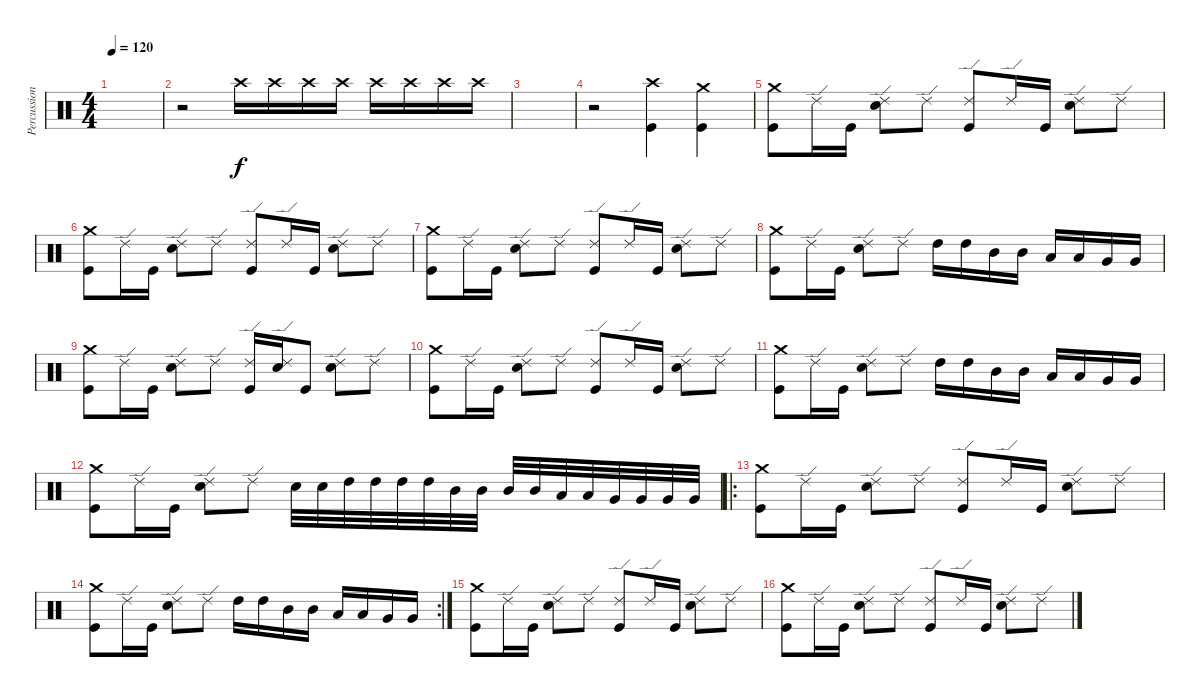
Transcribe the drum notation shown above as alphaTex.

\track ("Percussion" "Percussion") {instrument percussion}
\staff {score}
\articulation defaults
\ts (4 4)
\tempo 120
\clef neutral
\ks c
|
r.2 "Crash high (hit)".16{volume 0} "Crash high (hit)".16{volume 3} "Crash high (hit)".16 "Crash high (hit)".16 "Crash high (hit)".16{volume 8} "Crash high (hit)".16 "Crash high (hit)".16 "Crash high (hit)".16 |
|
r.2 ("Crash high (hit)" "Kick (hit)").4 ("Crash medium (hit)" "Kick (hit)").4 |
("Crash medium (hit)" "Kick (hit)").8 "Ride (edge) 2".16 "Kick (hit)".16 ("Ride (edge) 2" "Electric Snare (hit)").8 "Ride (edge) 2".8 ("Ride (edge) 2" "Kick (hit)").8 "Ride (edge) 2".16 "Kick (hit)".16 ("Ride (edge) 2" "Electric Snare (hit)").8 "Ride (edge) 2".8 |
("Crash medium (hit)" "Kick (hit)").8 "Ride (edge) 2".16 "Kick (hit)".16 ("Ride (edge) 2" "Electric Snare (hit)").8 "Ride (edge) 2".8 ("Ride (edge) 2" "Kick (hit)").8 "Ride (edge) 2".16 "Kick (hit)".16 ("Ride (edge) 2" "Electric Snare (hit)").8 "Ride (edge) 2".8 |
("Crash medium (hit)" "Kick (hit)").8 "Ride (edge) 2".16 "Kick (hit)".16 ("Ride (edge) 2" "Electric Snare (hit)").8 "Ride (edge) 2".8 ("Ride (edge) 2" "Kick (hit)").8 "Ride (edge) 2".16 "Kick (hit)".16 ("Ride (edge) 2" "Electric Snare (hit)").8 "Ride (edge) 2".8 |
("Crash medium (hit)" "Kick (hit)").8 "Ride (edge) 2".16 "Kick (hit)".16 ("Ride (edge) 2" "Electric Snare (hit)").8 "Ride (edge) 2".8 "High Tom (hit)".16 "High Tom (hit)".16 "Mid Tom (hit)".16 "Mid Tom (hit)".16 "Low Tom (hit)".16 "Low Tom (hit)".16 "Very Low Tom (hit)".16 "Very Low Tom (hit)".16 |
("Crash medium (hit)" "Kick (hit)").8 "Ride (edge) 2".16 "Kick (hit)".16 ("Ride (edge) 2" "Electric Snare (hit)").8 "Ride (edge) 2".8 ("Ride (edge) 2" "Kick (hit)").16 ("Ride (edge) 2" "Electric Snare (hit)").16 "Kick (hit)".8 ("Ride (edge) 2" "Electric Snare (hit)").8 "Ride (edge) 2".8 |
("Crash medium (hit)" "Kick (hit)").8 "Ride (edge) 2".16 "Kick (hit)".16 ("Ride (edge) 2" "Electric Snare (hit)").8 "Ride (edge) 2".8 ("Ride (edge) 2" "Kick (hit)").8 "Ride (edge) 2".16 "Kick (hit)".16 ("Ride (edge) 2" "Electric Snare (hit)").8 "Ride (edge) 2".8 |
("Crash medium (hit)" "Kick (hit)").8 "Ride (edge) 2".16 "Kick (hit)".16 ("Ride (edge) 2" "Electric Snare (hit)").8 "Ride (edge) 2".8 "High Tom (hit)".16 "High Tom (hit)".16 "Mid Tom (hit)".16 "Mid Tom (hit)".16 "Low Tom (hit)".16 "Low Tom (hit)".16 "Very Low Tom (hit)".16 "Very Low Tom (hit)".16 |
("Crash medium (hit)" "Kick (hit)").8 "Ride (edge) 2".16 "Kick (hit)".16 ("Ride (edge) 2" "Electric Snare (hit)").8 "Ride (edge) 2".8 "Electric Snare (hit)".32 "Electric Snare (hit)".32 "High Tom (hit)".32 "High Tom (hit)".32 "High Tom (hit)".32 "High Tom (hit)".32 "Mid Tom (hit)".32 "Mid Tom (hit)".32 "Mid Tom (hit)".32 "Mid Tom (hit)".32 "Low Tom (hit)".32 "Low Tom (hit)".32 "Very Low Tom (hit)".32 "Very Low Tom (hit)".32 "Very Low Tom (hit)".32 "Very Low Tom (hit)".32 |
\ro
("Crash medium (hit)" "Kick (hit)").8 "Ride (edge) 2".16 "Kick (hit)".16 ("Ride (edge) 2" "Electric Snare (hit)").8 "Ride (edge) 2".8 ("Ride (edge) 2" "Kick (hit)").8 "Ride (edge) 2".16 "Kick (hit)".16 ("Ride (edge) 2" "Electric Snare (hit)").8 "Ride (edge) 2".8 |
\rc 2
("Crash medium (hit)" "Kick (hit)").8 "Ride (edge) 2".16 "Kick (hit)".16 ("Ride (edge) 2" "Electric Snare (hit)").8 "Ride (edge) 2".8 "High Tom (hit)".16 "High Tom (hit)".16 "Mid Tom (hit)".16 "Mid Tom (hit)".16 "Low Tom (hit)".16 "Low Tom (hit)".16 "Very Low Tom (hit)".16 "Very Low Tom (hit)".16 |
("Crash medium (hit)" "Kick (hit)").8 "Ride (edge) 2".16 "Kick (hit)".16 ("Ride (edge) 2" "Electric Snare (hit)").8 "Ride (edge) 2".8 ("Ride (edge) 2" "Kick (hit)").8 "Ride (edge) 2".16 "Kick (hit)".16 ("Ride (edge) 2" "Electric Snare (hit)").8 "Ride (edge) 2".8 |
("Crash medium (hit)" "Kick (hit)").8 "Ride (edge) 2".16 "Kick (hit)".16 ("Ride (edge) 2" "Electric Snare (hit)").8 "Ride (edge) 2".8 ("Ride (edge) 2" "Kick (hit)").8 "Ride (edge) 2".16 "Kick (hit)".16 ("Ride (edge) 2" "Electric Snare (hit)").8 "Ride (edge) 2".8
